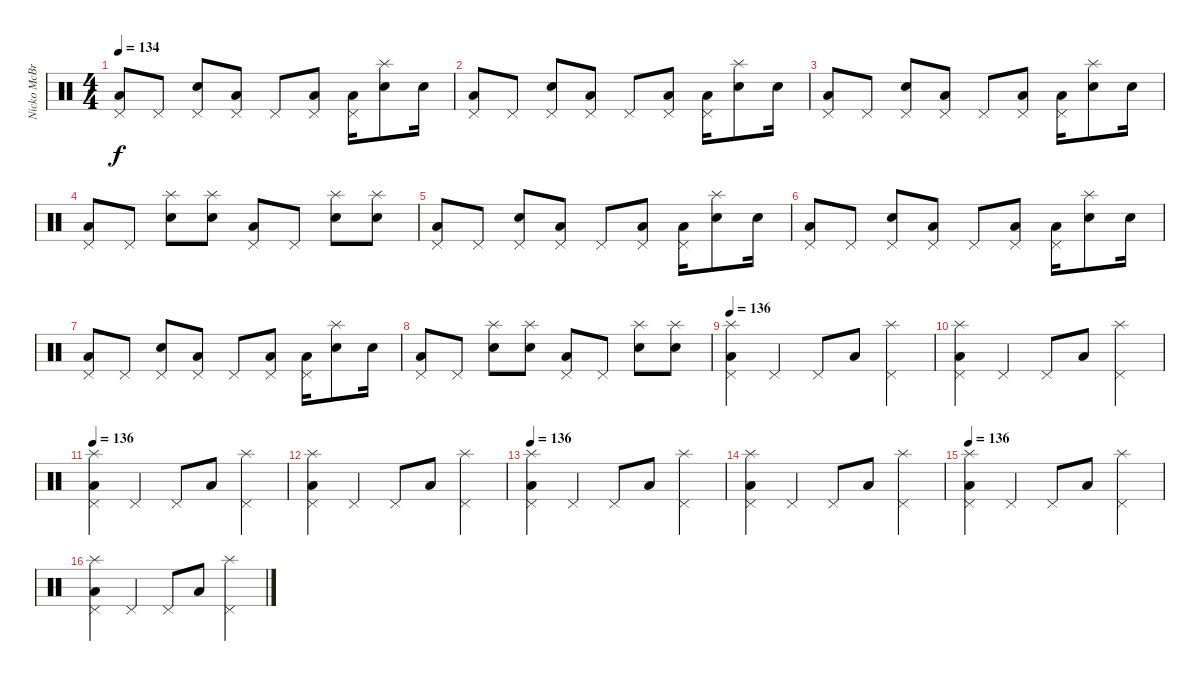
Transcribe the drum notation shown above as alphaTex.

\track ("Nicko McBrian" "Nicko McBr") {instrument percussion}
\staff {score}
\articulation defaults
\ts (4 4)
\tempo 134
\clef neutral
\ks c
("Low Floor Tom (hit)" "Pedal Hi-Hat (hit)").8{dy f} "Pedal Hi-Hat (hit)".8 ("Electric Snare (hit)" "Pedal Hi-Hat (hit)").8 ("Low Floor Tom (hit)" "Pedal Hi-Hat (hit)").8 "Pedal Hi-Hat (hit)".8 ("Low Floor Tom (hit)" "Pedal Hi-Hat (hit)").8 ("Low Floor Tom (hit)" "Pedal Hi-Hat (hit)").16 ("Electric Snare (hit)" "Splash (hit)").8 "Electric Snare (hit)".16 |
("Low Floor Tom (hit)" "Pedal Hi-Hat (hit)").8 "Pedal Hi-Hat (hit)".8 ("Electric Snare (hit)" "Pedal Hi-Hat (hit)").8 ("Low Floor Tom (hit)" "Pedal Hi-Hat (hit)").8 "Pedal Hi-Hat (hit)".8 ("Low Floor Tom (hit)" "Pedal Hi-Hat (hit)").8 ("Low Floor Tom (hit)" "Pedal Hi-Hat (hit)").16 ("Electric Snare (hit)" "Splash (hit)").8 "Electric Snare (hit)".16 |
("Low Floor Tom (hit)" "Pedal Hi-Hat (hit)").8 "Pedal Hi-Hat (hit)".8 ("Electric Snare (hit)" "Pedal Hi-Hat (hit)").8 ("Low Floor Tom (hit)" "Pedal Hi-Hat (hit)").8 "Pedal Hi-Hat (hit)".8 ("Low Floor Tom (hit)" "Pedal Hi-Hat (hit)").8 ("Low Floor Tom (hit)" "Pedal Hi-Hat (hit)").16 ("Electric Snare (hit)" "Splash (hit)").8 "Electric Snare (hit)".16 |
("Low Floor Tom (hit)" "Pedal Hi-Hat (hit)").8 "Pedal Hi-Hat (hit)".8 ("Electric Snare (hit)" "Splash (hit)").8 ("Electric Snare (hit)" "Splash (hit)").8 ("Low Floor Tom (hit)" "Pedal Hi-Hat (hit)").8 "Pedal Hi-Hat (hit)".8 ("Electric Snare (hit)" "Splash (hit)").8 ("Electric Snare (hit)" "Splash (hit)").8 |
("Low Floor Tom (hit)" "Pedal Hi-Hat (hit)").8 "Pedal Hi-Hat (hit)".8 ("Electric Snare (hit)" "Pedal Hi-Hat (hit)").8 ("Low Floor Tom (hit)" "Pedal Hi-Hat (hit)").8 "Pedal Hi-Hat (hit)".8 ("Low Floor Tom (hit)" "Pedal Hi-Hat (hit)").8 ("Low Floor Tom (hit)" "Pedal Hi-Hat (hit)").16 ("Electric Snare (hit)" "Splash (hit)").8 "Electric Snare (hit)".16 |
("Low Floor Tom (hit)" "Pedal Hi-Hat (hit)").8 "Pedal Hi-Hat (hit)".8 ("Electric Snare (hit)" "Pedal Hi-Hat (hit)").8 ("Low Floor Tom (hit)" "Pedal Hi-Hat (hit)").8 "Pedal Hi-Hat (hit)".8 ("Low Floor Tom (hit)" "Pedal Hi-Hat (hit)").8 ("Low Floor Tom (hit)" "Pedal Hi-Hat (hit)").16 ("Electric Snare (hit)" "Splash (hit)").8 "Electric Snare (hit)".16 |
("Low Floor Tom (hit)" "Pedal Hi-Hat (hit)").8 "Pedal Hi-Hat (hit)".8 ("Electric Snare (hit)" "Pedal Hi-Hat (hit)").8 ("Low Floor Tom (hit)" "Pedal Hi-Hat (hit)").8 "Pedal Hi-Hat (hit)".8 ("Low Floor Tom (hit)" "Pedal Hi-Hat (hit)").8 ("Low Floor Tom (hit)" "Pedal Hi-Hat (hit)").16 ("Electric Snare (hit)" "Splash (hit)").8 "Electric Snare (hit)".16 |
("Low Floor Tom (hit)" "Pedal Hi-Hat (hit)").8 "Pedal Hi-Hat (hit)".8 ("Electric Snare (hit)" "Splash (hit)").8 ("Electric Snare (hit)" "Splash (hit)").8 ("Low Floor Tom (hit)" "Pedal Hi-Hat (hit)").8 "Pedal Hi-Hat (hit)".8 ("Electric Snare (hit)" "Splash (hit)").8 ("Electric Snare (hit)" "Splash (hit)").8 |
\tempo 136
("Low Floor Tom (hit)" "Pedal Hi-Hat (hit)" "Splash (hit)").4 "Pedal Hi-Hat (hit)".4 "Pedal Hi-Hat (hit)".8 "Low Floor Tom (hit)".8 ("Pedal Hi-Hat (hit)" "Splash (hit)").4 |
("Low Floor Tom (hit)" "Pedal Hi-Hat (hit)" "Splash (hit)").4 "Pedal Hi-Hat (hit)".4 "Pedal Hi-Hat (hit)".8 "Low Floor Tom (hit)".8 ("Pedal Hi-Hat (hit)" "Splash (hit)").4 |
\tempo 136
("Low Floor Tom (hit)" "Pedal Hi-Hat (hit)" "Splash (hit)").4 "Pedal Hi-Hat (hit)".4 "Pedal Hi-Hat (hit)".8 "Low Floor Tom (hit)".8 ("Pedal Hi-Hat (hit)" "Splash (hit)").4 |
("Low Floor Tom (hit)" "Pedal Hi-Hat (hit)" "Splash (hit)").4 "Pedal Hi-Hat (hit)".4 "Pedal Hi-Hat (hit)".8 "Low Floor Tom (hit)".8 ("Pedal Hi-Hat (hit)" "Splash (hit)").4 |
\tempo 136
("Low Floor Tom (hit)" "Pedal Hi-Hat (hit)" "Splash (hit)").4 "Pedal Hi-Hat (hit)".4 "Pedal Hi-Hat (hit)".8 "Low Floor Tom (hit)".8 ("Pedal Hi-Hat (hit)" "Splash (hit)").4 |
("Low Floor Tom (hit)" "Pedal Hi-Hat (hit)" "Splash (hit)").4 "Pedal Hi-Hat (hit)".4 "Pedal Hi-Hat (hit)".8 "Low Floor Tom (hit)".8 ("Pedal Hi-Hat (hit)" "Splash (hit)").4 |
\tempo 136
("Low Floor Tom (hit)" "Pedal Hi-Hat (hit)" "Splash (hit)").4 "Pedal Hi-Hat (hit)".4 "Pedal Hi-Hat (hit)".8 "Low Floor Tom (hit)".8 ("Pedal Hi-Hat (hit)" "Splash (hit)").4 |
("Low Floor Tom (hit)" "Pedal Hi-Hat (hit)" "Splash (hit)").4 "Pedal Hi-Hat (hit)".4 "Pedal Hi-Hat (hit)".8 "Low Floor Tom (hit)".8 ("Pedal Hi-Hat (hit)" "Splash (hit)").4
